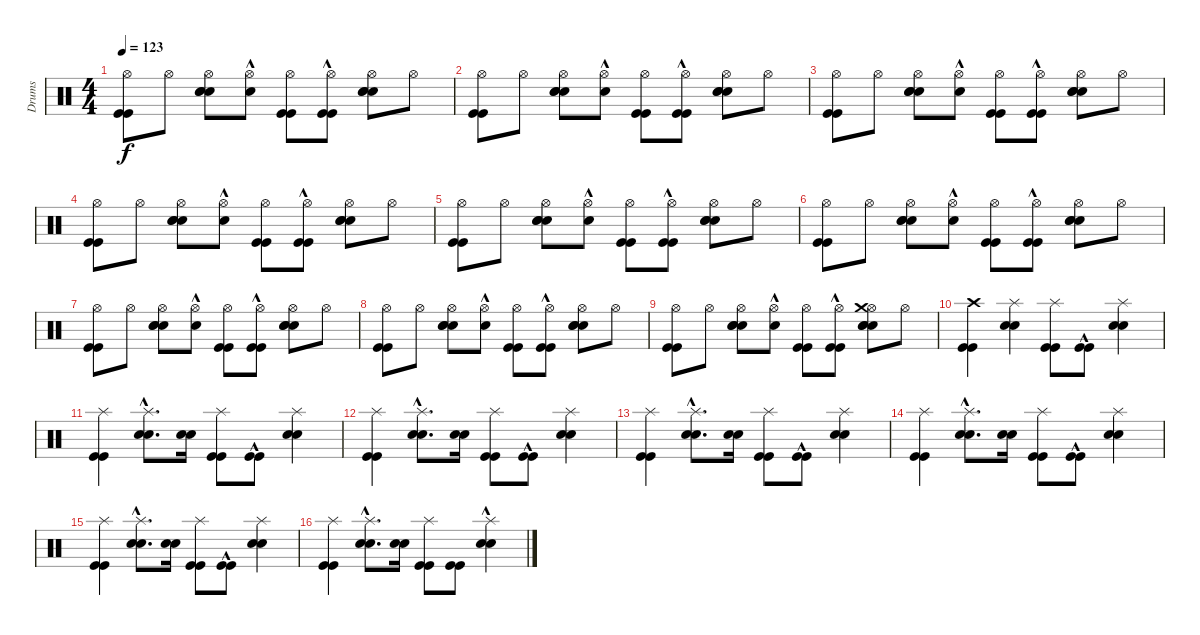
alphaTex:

\track ("Drums" "Drums") {instrument percussion}
\staff {score}
\articulation defaults
\ts (4 4)
\tempo 123
\clef neutral
\ks c
("Kick (hit)" "Kick (hit)" "Hi-Hat (open)").8{dy f} "Hi-Hat (open)".8 ("Snare (hit) 2" "Snare (hit) 2" "Hand Clap (hit)" "Hi-Hat (open)").8 ("Hand Clap (hit)"{hac} "Hi-Hat (open)").8 ("Kick (hit)" "Kick (hit)" "Hi-Hat (open)").8 ("Kick (hit)"{hac} "Kick (hit)"{hac} "Hi-Hat (open)").8 ("Snare (hit) 2" "Snare (hit) 2" "Hand Clap (hit)" "Hi-Hat (open)").8 "Hi-Hat (open)".8 |
("Kick (hit)" "Kick (hit)" "Hi-Hat (open)").8 "Hi-Hat (open)".8 ("Snare (hit) 2" "Snare (hit) 2" "Hand Clap (hit)" "Hi-Hat (open)").8 ("Hand Clap (hit)"{hac} "Hi-Hat (open)").8 ("Kick (hit)" "Kick (hit)" "Hi-Hat (open)").8 ("Kick (hit)"{hac} "Kick (hit)"{hac} "Hi-Hat (open)").8 ("Snare (hit) 2" "Snare (hit) 2" "Hand Clap (hit)" "Hi-Hat (open)").8 "Hi-Hat (open)".8 |
("Kick (hit)" "Kick (hit)" "Hi-Hat (open)").8 "Hi-Hat (open)".8 ("Snare (hit) 2" "Snare (hit) 2" "Hand Clap (hit)" "Hi-Hat (open)").8 ("Hand Clap (hit)"{hac} "Hi-Hat (open)").8 ("Kick (hit)" "Kick (hit)" "Hi-Hat (open)").8 ("Kick (hit)"{hac} "Kick (hit)"{hac} "Hi-Hat (open)").8 ("Snare (hit) 2" "Snare (hit) 2" "Hand Clap (hit)" "Hi-Hat (open)").8 "Hi-Hat (open)".8 |
("Kick (hit)" "Kick (hit)" "Hi-Hat (open)").8 "Hi-Hat (open)".8 ("Snare (hit) 2" "Snare (hit) 2" "Hand Clap (hit)" "Hi-Hat (open)").8 ("Hand Clap (hit)"{hac} "Hi-Hat (open)").8 ("Kick (hit)" "Kick (hit)" "Hi-Hat (open)").8 ("Kick (hit)"{hac} "Kick (hit)"{hac} "Hi-Hat (open)").8 ("Snare (hit) 2" "Snare (hit) 2" "Hand Clap (hit)" "Hi-Hat (open)").8 "Hi-Hat (open)".8 |
("Kick (hit)" "Kick (hit)" "Hi-Hat (open)").8 "Hi-Hat (open)".8 ("Snare (hit) 2" "Snare (hit) 2" "Hand Clap (hit)" "Hi-Hat (open)").8 ("Hand Clap (hit)"{hac} "Hi-Hat (open)").8 ("Kick (hit)" "Kick (hit)" "Hi-Hat (open)").8 ("Kick (hit)"{hac} "Kick (hit)"{hac} "Hi-Hat (open)").8 ("Snare (hit) 2" "Snare (hit) 2" "Hand Clap (hit)" "Hi-Hat (open)").8 "Hi-Hat (open)".8 |
("Kick (hit)" "Kick (hit)" "Hi-Hat (open)").8 "Hi-Hat (open)".8 ("Snare (hit) 2" "Snare (hit) 2" "Hand Clap (hit)" "Hi-Hat (open)").8 ("Hand Clap (hit)"{hac} "Hi-Hat (open)").8 ("Kick (hit)" "Kick (hit)" "Hi-Hat (open)").8 ("Kick (hit)"{hac} "Kick (hit)"{hac} "Hi-Hat (open)").8 ("Snare (hit) 2" "Snare (hit) 2" "Hand Clap (hit)" "Hi-Hat (open)").8 "Hi-Hat (open)".8 |
("Kick (hit)" "Kick (hit)" "Hi-Hat (open)").8 "Hi-Hat (open)".8 ("Snare (hit) 2" "Snare (hit) 2" "Hand Clap (hit)" "Hi-Hat (open)").8 ("Hand Clap (hit)"{hac} "Hi-Hat (open)").8 ("Kick (hit)" "Kick (hit)" "Hi-Hat (open)").8 ("Kick (hit)"{hac} "Kick (hit)"{hac} "Hi-Hat (open)").8 ("Snare (hit) 2" "Snare (hit) 2" "Hand Clap (hit)" "Hi-Hat (open)").8 "Hi-Hat (open)".8 |
("Kick (hit)" "Kick (hit)" "Hi-Hat (open)").8 "Hi-Hat (open)".8 ("Snare (hit) 2" "Snare (hit) 2" "Hand Clap (hit)" "Hi-Hat (open)").8 ("Hand Clap (hit)"{hac} "Hi-Hat (open)").8 ("Kick (hit)" "Kick (hit)" "Hi-Hat (open)").8 ("Kick (hit)"{hac} "Kick (hit)"{hac} "Hi-Hat (open)").8 ("Snare (hit) 2" "Snare (hit) 2" "Hand Clap (hit)" "Hi-Hat (open)").8 "Hi-Hat (open)".8 |
("Kick (hit)" "Kick (hit)" "Hi-Hat (open)").8 "Hi-Hat (open)".8 ("Snare (hit) 2" "Snare (hit) 2" "Hand Clap (hit)" "Hi-Hat (open)").8 ("Hand Clap (hit)"{hac} "Hi-Hat (open)").8 ("Kick (hit)" "Kick (hit)" "Hi-Hat (open)").8 ("Kick (hit)"{hac} "Kick (hit)"{hac} "Hi-Hat (open)").8 ("Snare (hit) 2" "Snare (hit) 2" "Hand Clap (hit)" "Hi-Hat (open)" "Crash medium (hit)").8 "Hi-Hat (open)".8 |
("Kick (hit)" "Kick (hit)" "Crash high (hit)").4 ("Snare (hit) 2" "Snare (hit) 2" "Splash (hit)").4 ("Kick (hit)" "Kick (hit)" "Splash (hit)").8 ("Kick (hit)"{hac} "Kick (hit)"{hac}).8 ("Snare (hit) 2" "Snare (hit) 2" "Splash (hit)").4 |
("Kick (hit)" "Kick (hit)" "Splash (hit)").4 ("Snare (hit) 2"{hac} "Snare (hit) 2"{hac} "Splash (hit)").8{d} ("Snare (hit) 2" "Snare (hit) 2").16 ("Kick (hit)" "Kick (hit)" "Splash (hit)").8 ("Kick (hit)"{hac} "Kick (hit)"{hac}).8 ("Snare (hit) 2" "Snare (hit) 2" "Splash (hit)").4 |
("Kick (hit)" "Kick (hit)" "Splash (hit)").4 ("Snare (hit) 2"{hac} "Snare (hit) 2"{hac} "Splash (hit)").8{d} ("Snare (hit) 2" "Snare (hit) 2").16 ("Kick (hit)" "Kick (hit)" "Splash (hit)").8 ("Kick (hit)"{hac} "Kick (hit)"{hac}).8 ("Snare (hit) 2" "Snare (hit) 2" "Splash (hit)").4 |
("Kick (hit)" "Kick (hit)" "Splash (hit)").4 ("Snare (hit) 2"{hac} "Snare (hit) 2"{hac} "Splash (hit)").8{d} ("Snare (hit) 2" "Snare (hit) 2").16 ("Kick (hit)" "Kick (hit)" "Splash (hit)").8 ("Kick (hit)"{hac} "Kick (hit)"{hac}).8 ("Snare (hit) 2" "Snare (hit) 2" "Splash (hit)").4 |
("Kick (hit)" "Kick (hit)" "Splash (hit)").4 ("Snare (hit) 2"{hac} "Snare (hit) 2"{hac} "Splash (hit)").8{d} ("Snare (hit) 2" "Snare (hit) 2").16 ("Kick (hit)" "Kick (hit)" "Splash (hit)").8 ("Kick (hit)"{hac} "Kick (hit)"{hac}).8 ("Snare (hit) 2" "Snare (hit) 2" "Splash (hit)").4 |
("Kick (hit)" "Kick (hit)" "Splash (hit)").4 ("Snare (hit) 2"{hac} "Snare (hit) 2"{hac} "Splash (hit)").8{d} ("Snare (hit) 2" "Snare (hit) 2").16 ("Kick (hit)" "Kick (hit)" "Splash (hit)").8 ("Kick (hit)"{hac} "Kick (hit)"{hac}).8 ("Snare (hit) 2" "Snare (hit) 2" "Splash (hit)").4 |
("Kick (hit)" "Kick (hit)" "Splash (hit)").4 ("Snare (hit) 2"{hac} "Snare (hit) 2"{hac} "Splash (hit)").8{d} ("Snare (hit) 2" "Snare (hit) 2").16 ("Kick (hit)" "Kick (hit)" "Splash (hit)").8 ("Kick (hit)" "Kick (hit)").8 ("Snare (hit) 2" "Snare (hit) 2" "Splash (hit)"{hac}).4
